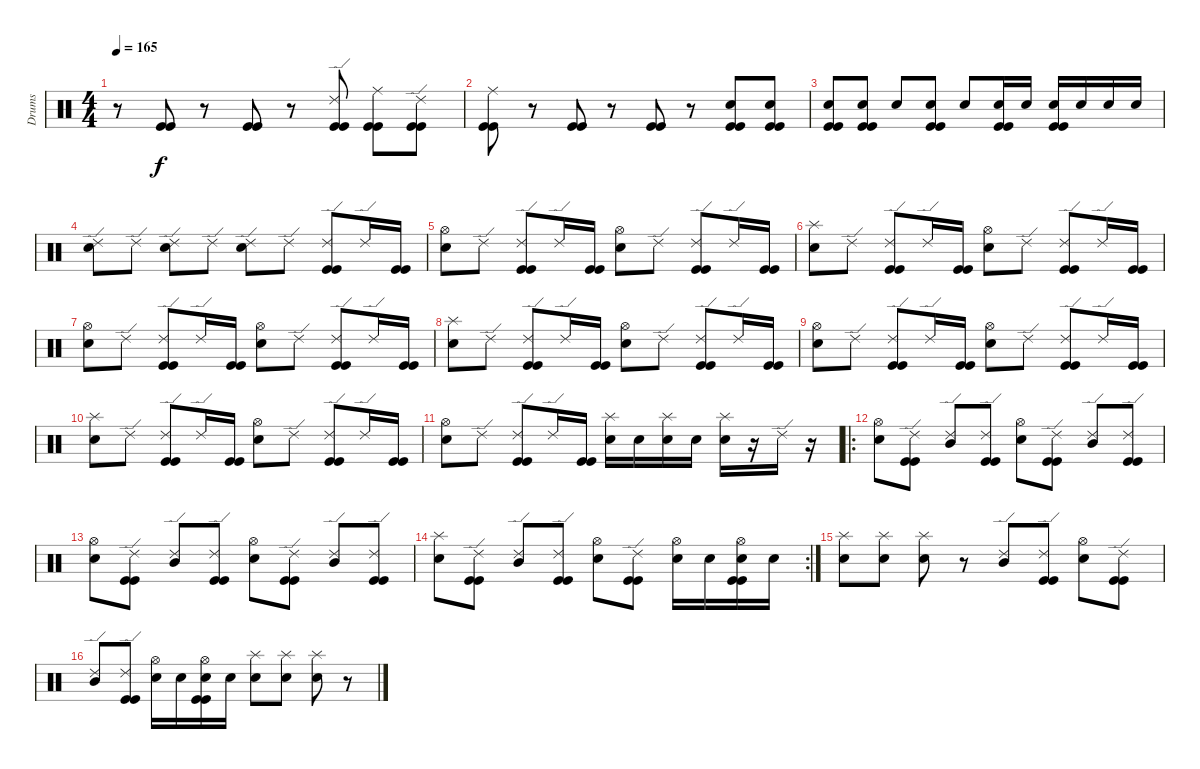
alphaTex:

\track ("Drums" "Drums") {instrument percussion}
\staff {score}
\articulation defaults
\ts (4 4)
\tempo 165
\clef neutral
\ks c
r.8{dy f} ("Kick (hit)" "Kick (hit)").8 r.8 ("Kick (hit)" "Kick (hit)").8 r.8 ("Ride (edge) 2" "Kick (hit)" "Kick (hit)").8 ("Ride (middle)" "Kick (hit)" "Kick (hit)").8 ("Ride (edge) 2" "Kick (hit)" "Kick (hit)").8 |
("Ride (middle)" "Kick (hit)" "Kick (hit)").8 r.8 ("Kick (hit)" "Kick (hit)").8 r.8 ("Kick (hit)" "Kick (hit)").8 r.8 ("Snare (hit) 2" "Kick (hit)" "Kick (hit)").8 ("Snare (hit) 2" "Kick (hit)" "Kick (hit)").8 |
("Snare (hit) 2" "Kick (hit)" "Kick (hit)").8 ("Snare (hit) 2" "Kick (hit)" "Kick (hit)").8 "Snare (hit) 2".8 ("Snare (hit) 2" "Kick (hit)" "Kick (hit)").8 "Snare (hit) 2".8 ("Snare (hit) 2" "Kick (hit)" "Kick (hit)").16 "Snare (hit) 2".16 ("Snare (hit) 2" "Kick (hit)" "Kick (hit)").16 "Snare (hit) 2".16 "Snare (hit) 2".16 "Snare (hit) 2".16 |
("Ride (edge) 2" "Snare (hit) 2").8 "Ride (edge) 2".8 ("Ride (edge) 2" "Snare (hit) 2").8 "Ride (edge) 2".8 ("Ride (edge) 2" "Snare (hit) 2").8 "Ride (edge) 2".8 ("Ride (edge) 2" "Kick (hit)" "Kick (hit)").8 "Ride (edge) 2".16 ("Kick (hit)" "Kick (hit)").16 |
("Hi-Hat (open)" "Snare (hit) 2").8 "Ride (edge) 2".8 ("Ride (edge) 2" "Kick (hit)" "Kick (hit)").8 "Ride (edge) 2".16 ("Kick (hit)" "Kick (hit)").16 ("Hi-Hat (open)" "Snare (hit) 2").8 "Ride (edge) 2".8 ("Ride (edge) 2" "Kick (hit)" "Kick (hit)").8 "Ride (edge) 2".16 ("Kick (hit)" "Kick (hit)").16 |
("Splash (hit)" "Snare (hit) 2").8 "Ride (edge) 2".8 ("Ride (edge) 2" "Kick (hit)" "Kick (hit)").8 "Ride (edge) 2".16 ("Kick (hit)" "Kick (hit)").16 ("Hi-Hat (open)" "Snare (hit) 2").8 "Ride (edge) 2".8 ("Ride (edge) 2" "Kick (hit)" "Kick (hit)").8 "Ride (edge) 2".16 ("Kick (hit)" "Kick (hit)").16 |
("Hi-Hat (open)" "Snare (hit) 2").8 "Ride (edge) 2".8 ("Ride (edge) 2" "Kick (hit)" "Kick (hit)").8 "Ride (edge) 2".16 ("Kick (hit)" "Kick (hit)").16 ("Hi-Hat (open)" "Snare (hit) 2").8 "Ride (edge) 2".8 ("Ride (edge) 2" "Kick (hit)" "Kick (hit)").8 "Ride (edge) 2".16 ("Kick (hit)" "Kick (hit)").16 |
("Splash (hit)" "Snare (hit) 2").8 "Ride (edge) 2".8 ("Ride (edge) 2" "Kick (hit)" "Kick (hit)").8 "Ride (edge) 2".16 ("Kick (hit)" "Kick (hit)").16 ("Hi-Hat (open)" "Snare (hit) 2").8 "Ride (edge) 2".8 ("Ride (edge) 2" "Kick (hit)" "Kick (hit)").8 "Ride (edge) 2".16 ("Kick (hit)" "Kick (hit)").16 |
("Hi-Hat (open)" "Snare (hit) 2").8 "Ride (edge) 2".8 ("Ride (edge) 2" "Kick (hit)" "Kick (hit)").8 "Ride (edge) 2".16 ("Kick (hit)" "Kick (hit)").16 ("Hi-Hat (open)" "Snare (hit) 2").8 "Ride (edge) 2".8 ("Ride (edge) 2" "Kick (hit)" "Kick (hit)").8 "Ride (edge) 2".16 ("Kick (hit)" "Kick (hit)").16 |
("Splash (hit)" "Snare (hit) 2").8 "Ride (edge) 2".8 ("Ride (edge) 2" "Kick (hit)" "Kick (hit)").8 "Ride (edge) 2".16 ("Kick (hit)" "Kick (hit)").16 ("Hi-Hat (open)" "Snare (hit) 2").8 "Ride (edge) 2".8 ("Ride (edge) 2" "Kick (hit)" "Kick (hit)").8 "Ride (edge) 2".16 ("Kick (hit)" "Kick (hit)").16 |
("Hi-Hat (open)" "Snare (hit) 2").8 "Ride (edge) 2".8 ("Ride (edge) 2" "Kick (hit)" "Kick (hit)").8 "Ride (edge) 2".16 ("Kick (hit)" "Kick (hit)").16 ("Splash (hit)" "Snare (hit) 2").16 "Snare (hit) 2".16 ("Splash (hit)" "Snare (hit) 2").16 "Snare (hit) 2".16 ("Splash (hit)" "Snare (hit) 2").16 r.16 "Ride (edge) 2".16 r.16 |
\ro
("Hi-Hat (open)" "Snare (hit) 2").8 ("Ride (edge) 2" "Kick (hit)" "Kick (hit)").8 ("Ride (edge) 2" "Mid Tom (hit)").8 ("Ride (edge) 2" "Kick (hit)" "Kick (hit)").8 ("Hi-Hat (open)" "Snare (hit) 2").8 ("Ride (edge) 2" "Kick (hit)" "Kick (hit)").8 ("Ride (edge) 2" "Mid Tom (hit)").8 ("Ride (edge) 2" "Kick (hit)" "Kick (hit)").8 |
("Hi-Hat (open)" "Snare (hit) 2").8 ("Ride (edge) 2" "Kick (hit)" "Kick (hit)").8 ("Ride (edge) 2" "Mid Tom (hit)").8 ("Ride (edge) 2" "Kick (hit)" "Kick (hit)").8 ("Hi-Hat (open)" "Snare (hit) 2").8 ("Ride (edge) 2" "Kick (hit)" "Kick (hit)").8 ("Ride (edge) 2" "Mid Tom (hit)").8 ("Ride (edge) 2" "Kick (hit)" "Kick (hit)").8 |
\rc 2
("Splash (hit)" "Snare (hit) 2").8 ("Ride (edge) 2" "Kick (hit)" "Kick (hit)").8 ("Ride (edge) 2" "Mid Tom (hit)").8 ("Ride (edge) 2" "Kick (hit)" "Kick (hit)").8 ("Hi-Hat (open)" "Snare (hit) 2").8 ("Ride (edge) 2" "Kick (hit)" "Kick (hit)").8 ("Hi-Hat (open)" "Snare (hit) 2").16 "Snare (hit) 2".16 ("Hi-Hat (open)" "Snare (hit) 2" "Kick (hit)" "Kick (hit)").16 "Snare (hit) 2".16 |
("Splash (hit)" "Snare (hit) 2").8 ("Splash (hit)" "Snare (hit) 2").8 ("Splash (hit)" "Snare (hit) 2").8 r.8 ("Ride (edge) 2" "Mid Tom (hit)").8 ("Ride (edge) 2" "Kick (hit)" "Kick (hit)").8 ("Hi-Hat (open)" "Snare (hit) 2").8 ("Ride (edge) 2" "Kick (hit)" "Kick (hit)").8 |
("Ride (edge) 2" "Mid Tom (hit)").8 ("Ride (edge) 2" "Kick (hit)" "Kick (hit)").8 ("Hi-Hat (open)" "Snare (hit) 2").16 "Snare (hit) 2".16 ("Hi-Hat (open)" "Snare (hit) 2" "Kick (hit)" "Kick (hit)").16 "Snare (hit) 2".16 ("Splash (hit)" "Snare (hit) 2").8 ("Splash (hit)" "Snare (hit) 2").8 ("Splash (hit)" "Snare (hit) 2").8 r.8
